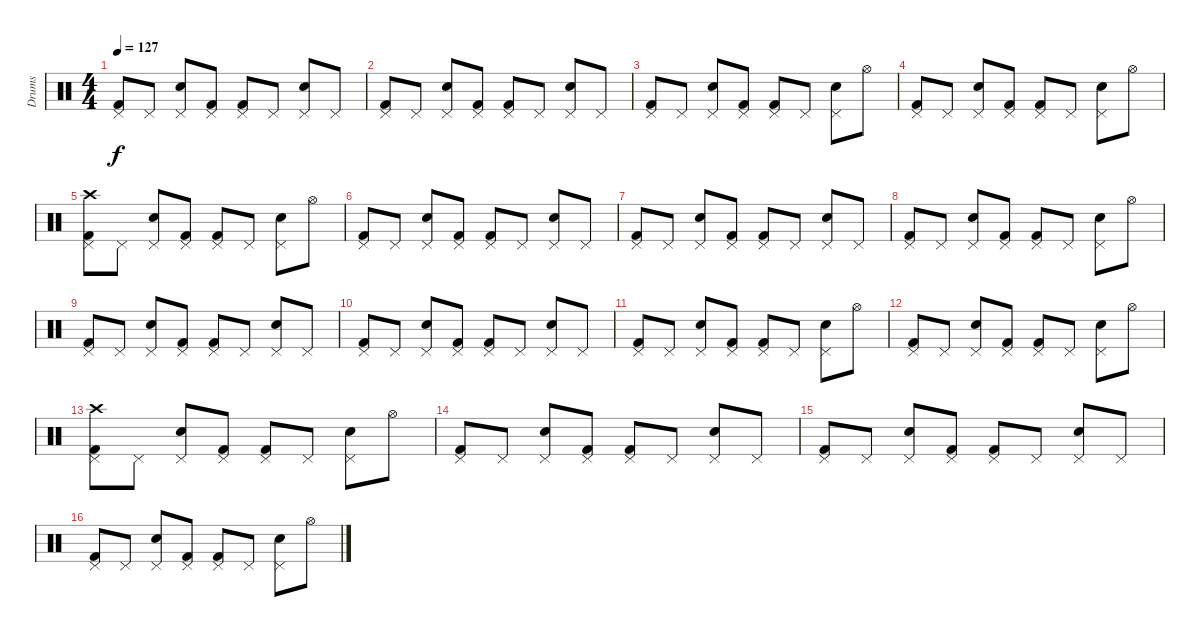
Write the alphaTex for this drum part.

\track ("Drums" "Drums") {instrument percussion}
\staff {score}
\articulation defaults
\ts (4 4)
\tempo 127
\clef neutral
\ks c
("Pedal Hi-Hat (hit)" "Kick (hit) 2").8{dy f} "Pedal Hi-Hat (hit)".8 ("Pedal Hi-Hat (hit)" "Snare (hit) 2").8 ("Pedal Hi-Hat (hit)" "Kick (hit) 2").8 ("Pedal Hi-Hat (hit)" "Kick (hit) 2").8 "Pedal Hi-Hat (hit)".8 ("Pedal Hi-Hat (hit)" "Snare (hit) 2").8 "Pedal Hi-Hat (hit)".8 |
("Pedal Hi-Hat (hit)" "Kick (hit) 2").8 "Pedal Hi-Hat (hit)".8 ("Pedal Hi-Hat (hit)" "Snare (hit) 2").8 ("Pedal Hi-Hat (hit)" "Kick (hit) 2").8 ("Pedal Hi-Hat (hit)" "Kick (hit) 2").8 "Pedal Hi-Hat (hit)".8 ("Pedal Hi-Hat (hit)" "Snare (hit) 2").8 "Pedal Hi-Hat (hit)".8 |
("Pedal Hi-Hat (hit)" "Kick (hit) 2").8 "Pedal Hi-Hat (hit)".8 ("Pedal Hi-Hat (hit)" "Snare (hit) 2").8 ("Pedal Hi-Hat (hit)" "Kick (hit) 2").8 ("Pedal Hi-Hat (hit)" "Kick (hit) 2").8 "Pedal Hi-Hat (hit)".8 ("Pedal Hi-Hat (hit)" "Snare (hit) 2").8 "Hi-Hat (open)".8 |
("Pedal Hi-Hat (hit)" "Kick (hit) 2").8 "Pedal Hi-Hat (hit)".8 ("Pedal Hi-Hat (hit)" "Snare (hit) 2").8 ("Pedal Hi-Hat (hit)" "Kick (hit) 2").8 ("Pedal Hi-Hat (hit)" "Kick (hit) 2").8 "Pedal Hi-Hat (hit)".8 ("Pedal Hi-Hat (hit)" "Snare (hit) 2").8 "Hi-Hat (open)".8 |
("Crash high (hit)" "Pedal Hi-Hat (hit)" "Kick (hit) 2").8 "Pedal Hi-Hat (hit)".8 ("Pedal Hi-Hat (hit)" "Snare (hit) 2").8 ("Pedal Hi-Hat (hit)" "Kick (hit) 2").8 ("Pedal Hi-Hat (hit)" "Kick (hit) 2").8 "Pedal Hi-Hat (hit)".8 ("Pedal Hi-Hat (hit)" "Snare (hit) 2").8 "Hi-Hat (open)".8 |
("Pedal Hi-Hat (hit)" "Kick (hit) 2").8 "Pedal Hi-Hat (hit)".8 ("Pedal Hi-Hat (hit)" "Snare (hit) 2").8 ("Pedal Hi-Hat (hit)" "Kick (hit) 2").8 ("Pedal Hi-Hat (hit)" "Kick (hit) 2").8 "Pedal Hi-Hat (hit)".8 ("Pedal Hi-Hat (hit)" "Snare (hit) 2").8 "Pedal Hi-Hat (hit)".8 |
("Pedal Hi-Hat (hit)" "Kick (hit) 2").8 "Pedal Hi-Hat (hit)".8 ("Pedal Hi-Hat (hit)" "Snare (hit) 2").8 ("Pedal Hi-Hat (hit)" "Kick (hit) 2").8 ("Pedal Hi-Hat (hit)" "Kick (hit) 2").8 "Pedal Hi-Hat (hit)".8 ("Pedal Hi-Hat (hit)" "Snare (hit) 2").8 "Pedal Hi-Hat (hit)".8 |
("Pedal Hi-Hat (hit)" "Kick (hit) 2").8 "Pedal Hi-Hat (hit)".8 ("Pedal Hi-Hat (hit)" "Snare (hit) 2").8 ("Pedal Hi-Hat (hit)" "Kick (hit) 2").8 ("Pedal Hi-Hat (hit)" "Kick (hit) 2").8 "Pedal Hi-Hat (hit)".8 ("Pedal Hi-Hat (hit)" "Snare (hit) 2").8 "Hi-Hat (open)".8 |
("Pedal Hi-Hat (hit)" "Kick (hit) 2").8 "Pedal Hi-Hat (hit)".8 ("Pedal Hi-Hat (hit)" "Snare (hit) 2").8 ("Pedal Hi-Hat (hit)" "Kick (hit) 2").8 ("Pedal Hi-Hat (hit)" "Kick (hit) 2").8 "Pedal Hi-Hat (hit)".8 ("Pedal Hi-Hat (hit)" "Snare (hit) 2").8 "Pedal Hi-Hat (hit)".8 |
("Pedal Hi-Hat (hit)" "Kick (hit) 2").8 "Pedal Hi-Hat (hit)".8 ("Pedal Hi-Hat (hit)" "Snare (hit) 2").8 ("Pedal Hi-Hat (hit)" "Kick (hit) 2").8 ("Pedal Hi-Hat (hit)" "Kick (hit) 2").8 "Pedal Hi-Hat (hit)".8 ("Pedal Hi-Hat (hit)" "Snare (hit) 2").8 "Pedal Hi-Hat (hit)".8 |
("Pedal Hi-Hat (hit)" "Kick (hit) 2").8 "Pedal Hi-Hat (hit)".8 ("Pedal Hi-Hat (hit)" "Snare (hit) 2").8 ("Pedal Hi-Hat (hit)" "Kick (hit) 2").8 ("Pedal Hi-Hat (hit)" "Kick (hit) 2").8 "Pedal Hi-Hat (hit)".8 ("Pedal Hi-Hat (hit)" "Snare (hit) 2").8 "Hi-Hat (open)".8 |
("Pedal Hi-Hat (hit)" "Kick (hit) 2").8 "Pedal Hi-Hat (hit)".8 ("Pedal Hi-Hat (hit)" "Snare (hit) 2").8 ("Pedal Hi-Hat (hit)" "Kick (hit) 2").8 ("Pedal Hi-Hat (hit)" "Kick (hit) 2").8 "Pedal Hi-Hat (hit)".8 ("Pedal Hi-Hat (hit)" "Snare (hit) 2").8 "Hi-Hat (open)".8 |
("Crash high (hit)" "Pedal Hi-Hat (hit)" "Kick (hit) 2").8 "Pedal Hi-Hat (hit)".8 ("Pedal Hi-Hat (hit)" "Snare (hit) 2").8 ("Pedal Hi-Hat (hit)" "Kick (hit) 2").8 ("Pedal Hi-Hat (hit)" "Kick (hit) 2").8 "Pedal Hi-Hat (hit)".8 ("Pedal Hi-Hat (hit)" "Snare (hit) 2").8 "Hi-Hat (open)".8 |
("Pedal Hi-Hat (hit)" "Kick (hit) 2").8 "Pedal Hi-Hat (hit)".8 ("Pedal Hi-Hat (hit)" "Snare (hit) 2").8 ("Pedal Hi-Hat (hit)" "Kick (hit) 2").8 ("Pedal Hi-Hat (hit)" "Kick (hit) 2").8 "Pedal Hi-Hat (hit)".8 ("Pedal Hi-Hat (hit)" "Snare (hit) 2").8 "Pedal Hi-Hat (hit)".8 |
("Pedal Hi-Hat (hit)" "Kick (hit) 2").8 "Pedal Hi-Hat (hit)".8 ("Pedal Hi-Hat (hit)" "Snare (hit) 2").8 ("Pedal Hi-Hat (hit)" "Kick (hit) 2").8 ("Pedal Hi-Hat (hit)" "Kick (hit) 2").8 "Pedal Hi-Hat (hit)".8 ("Pedal Hi-Hat (hit)" "Snare (hit) 2").8 "Pedal Hi-Hat (hit)".8 |
("Pedal Hi-Hat (hit)" "Kick (hit) 2").8 "Pedal Hi-Hat (hit)".8 ("Pedal Hi-Hat (hit)" "Snare (hit) 2").8 ("Pedal Hi-Hat (hit)" "Kick (hit) 2").8 ("Pedal Hi-Hat (hit)" "Kick (hit) 2").8 "Pedal Hi-Hat (hit)".8 ("Pedal Hi-Hat (hit)" "Snare (hit) 2").8 "Hi-Hat (open)".8
